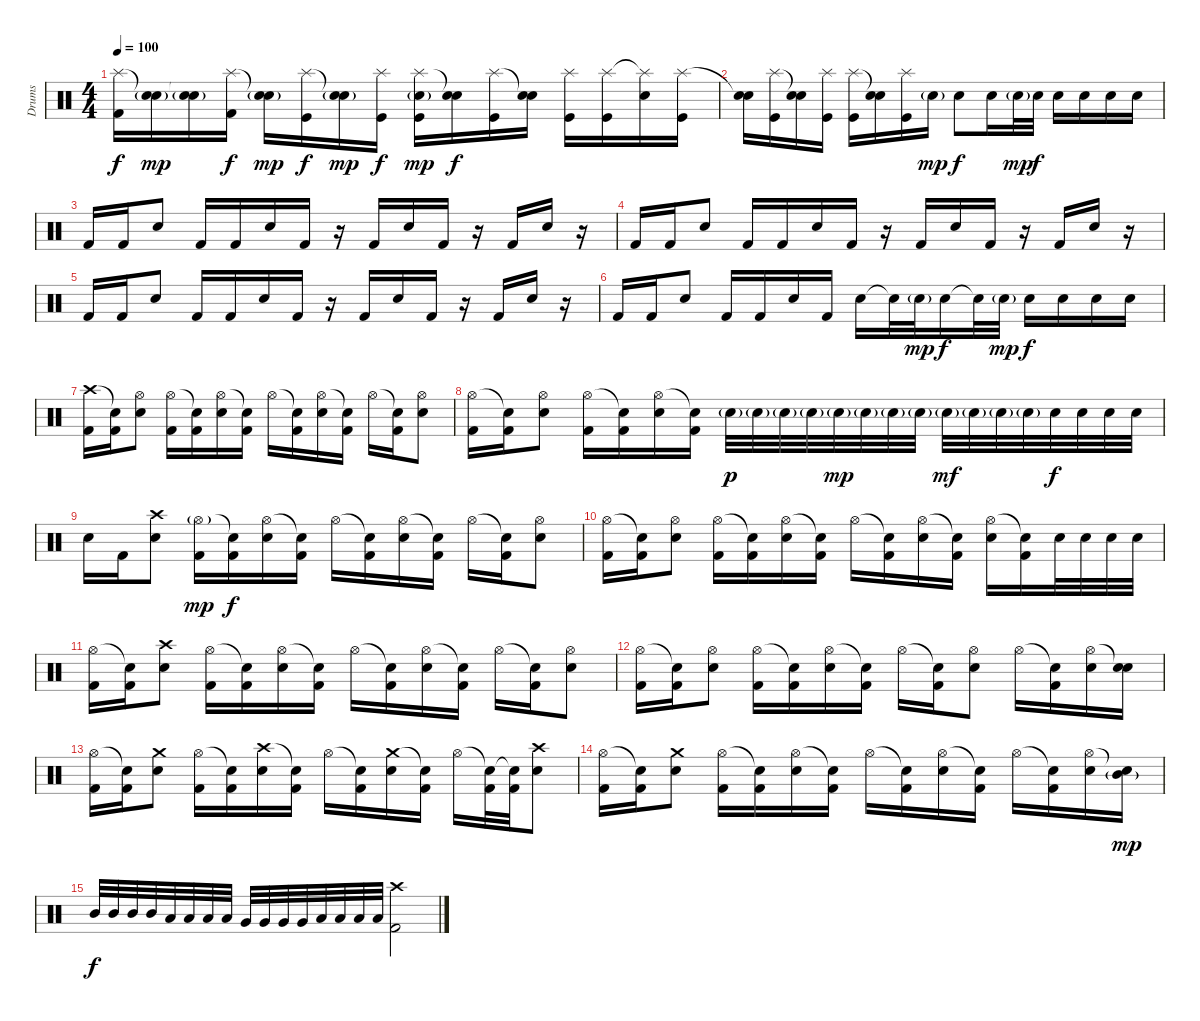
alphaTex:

\track ("Drums" "Drums") {instrument percussion}
\staff {score}
\articulation defaults
\ts (4 4)
\tempo 100
\clef neutral
\ks c
("Splash (hit)" "Kick (hit) 2").16{dy f} ("Snare (hit)"{t} "Electric Snare (hit)"{g}).16{dy mp} ("Snare (hit)"{t} "Electric Snare (hit)"{g}).16 ("Splash (hit)" "Kick (hit) 2").16{dy f} ("Snare (hit)"{t} "Electric Snare (hit)"{g}).16{dy mp} ("Splash (hit)" "Kick (hit)").16{dy f} ("Snare (hit)"{t} "Electric Snare (hit)"{g}).16{dy mp} ("Splash (hit)" "Kick (hit)").16{dy f} ("Splash (hit)" "Electric Snare (hit)"{g} "Kick (hit)").16{dy mp} ("Snare (hit)"{t} "Electric Snare (hit)").16{dy f} ("Splash (hit)" "Kick (hit)").16 ("Snare (hit)"{t} "Electric Snare (hit)").16 ("Splash (hit)" "Kick (hit)").16 ("Splash (hit)" "Kick (hit)").16 ("Splash (hit)"{t} "Electric Snare (hit)").16 ("Splash (hit)" "Kick (hit)").16 |
("Snare (hit)"{t} "Electric Snare (hit)").16 ("Splash (hit)" "Kick (hit)").16 ("Snare (hit)"{t} "Electric Snare (hit)").16 ("Splash (hit)" "Kick (hit)").16 ("Splash (hit)" "Kick (hit)").16 ("Snare (hit)"{t} "Electric Snare (hit)").16 ("Splash (hit)" "Kick (hit)").16 "Electric Snare (hit)"{g}.16{dy mp} "Electric Snare (hit)".8{dy f} "Electric Snare (hit)".16 "Electric Snare (hit)"{g}.32{dy mp} "Electric Snare (hit)".32{dy f} "Electric Snare (hit)".16 "Electric Snare (hit)".16 "Electric Snare (hit)".16 "Electric Snare (hit)".16 |
"Kick (hit) 2".16 "Kick (hit) 2".16 "Electric Snare (hit)".8 "Kick (hit) 2".16 "Kick (hit) 2".16 "Electric Snare (hit)".16 "Kick (hit) 2".16 r.16 "Kick (hit) 2".16 "Electric Snare (hit)".16 "Kick (hit) 2".16 r.16 "Kick (hit) 2".16 "Electric Snare (hit)".16 r.16 |
"Kick (hit) 2".16 "Kick (hit) 2".16 "Electric Snare (hit)".8 "Kick (hit) 2".16 "Kick (hit) 2".16 "Electric Snare (hit)".16 "Kick (hit) 2".16 r.16 "Kick (hit) 2".16 "Electric Snare (hit)".16 "Kick (hit) 2".16 r.16 "Kick (hit) 2".16 "Electric Snare (hit)".16 r.16 |
"Kick (hit) 2".16 "Kick (hit) 2".16 "Electric Snare (hit)".8 "Kick (hit) 2".16 "Kick (hit) 2".16 "Electric Snare (hit)".16 "Kick (hit) 2".16 r.16 "Kick (hit) 2".16 "Electric Snare (hit)".16 "Kick (hit) 2".16 r.16 "Kick (hit) 2".16 "Electric Snare (hit)".16 r.16 |
"Kick (hit) 2".16 "Kick (hit) 2".16 "Electric Snare (hit)".8 "Kick (hit) 2".16 "Kick (hit) 2".16 "Electric Snare (hit)".16 "Kick (hit) 2".16 "Electric Snare (hit)".16 "Snare (hit)"{t}.32 "Electric Snare (hit)"{g}.32{dy mp} "Electric Snare (hit)".16{dy f} "Snare (hit)"{t}.32 "Electric Snare (hit)"{g}.32{dy mp} "Electric Snare (hit)".16{dy f} "Electric Snare (hit)".16 "Electric Snare (hit)".16 "Electric Snare (hit)".16 |
("Crash high (hit)" "Kick (hit) 2").16 ("Snare (hit)"{t} "Kick (hit) 2").16 ("Hi-Hat (open)" "Electric Snare (hit)").8 ("Hi-Hat (open)" "Kick (hit) 2").16 ("Snare (hit)"{t} "Kick (hit) 2").16 ("Hi-Hat (open)" "Electric Snare (hit)").16 ("Snare (hit)"{t} "Kick (hit) 2").16 "Hi-Hat (open)".16 ("Snare (hit)"{t} "Kick (hit) 2").16 ("Hi-Hat (open)" "Electric Snare (hit)").16 ("Snare (hit)"{t} "Kick (hit) 2").16 "Hi-Hat (open)".16 ("Snare (hit)"{t} "Kick (hit) 2").16 ("Hi-Hat (open)" "Electric Snare (hit)").8 |
("Hi-Hat (open)" "Kick (hit) 2").16 ("Snare (hit)"{t} "Kick (hit) 2").16 ("Hi-Hat (open)" "Electric Snare (hit)").8 ("Hi-Hat (open)" "Kick (hit) 2").16 ("Snare (hit)"{t} "Kick (hit) 2").16 ("Hi-Hat (open)" "Electric Snare (hit)").16 ("Snare (hit)"{t} "Kick (hit) 2").16 "Electric Snare (hit)"{g}.32{dy p} "Electric Snare (hit)"{g}.32 "Electric Snare (hit)"{g}.32 "Electric Snare (hit)"{g}.32 "Electric Snare (hit)"{g}.32{dy mp} "Electric Snare (hit)"{g}.32 "Electric Snare (hit)"{g}.32 "Electric Snare (hit)"{g}.32 "Electric Snare (hit)"{g}.32{dy mf} "Electric Snare (hit)"{g}.32 "Electric Snare (hit)"{g}.32 "Electric Snare (hit)"{g}.32 "Electric Snare (hit)".32{dy f} "Electric Snare (hit)".32 "Electric Snare (hit)".32 "Electric Snare (hit)".32 |
"Electric Snare (hit)".16 "Kick (hit) 2".16 ("Crash high (hit)" "Electric Snare (hit)").8 ("Hi-Hat (open)"{g} "Kick (hit) 2").16{dy mp} ("Snare (hit)"{t} "Kick (hit) 2").16{dy f} ("Hi-Hat (open)" "Electric Snare (hit)").16 ("Snare (hit)"{t} "Kick (hit) 2").16 "Hi-Hat (open)".16 ("Snare (hit)"{t} "Kick (hit) 2").16 ("Hi-Hat (open)" "Electric Snare (hit)").16 ("Snare (hit)"{t} "Kick (hit) 2").16 "Hi-Hat (open)".16 ("Snare (hit)"{t} "Kick (hit) 2").16 ("Hi-Hat (open)" "Electric Snare (hit)").8 |
("Hi-Hat (open)" "Kick (hit) 2").16 ("Snare (hit)"{t} "Kick (hit) 2").16 ("Hi-Hat (open)" "Electric Snare (hit)").8 ("Hi-Hat (open)" "Kick (hit) 2").16 ("Snare (hit)"{t} "Kick (hit) 2").16 ("Hi-Hat (open)" "Electric Snare (hit)").16 ("Snare (hit)"{t} "Kick (hit) 2").16 "Hi-Hat (open)".16 ("Snare (hit)"{t} "Kick (hit) 2").16 ("Hi-Hat (open)" "Electric Snare (hit)").16 ("Snare (hit)"{t} "Kick (hit) 2").16 ("Hi-Hat (open)" "Electric Snare (hit)").16 ("Snare (hit)"{t} "Kick (hit) 2").16 "Electric Snare (hit)".32 "Electric Snare (hit)".32 "Electric Snare (hit)".32 "Electric Snare (hit)".32 |
("Hi-Hat (open)" "Kick (hit) 2").16 ("Snare (hit)"{t} "Kick (hit) 2").16 ("Crash high (hit)" "Electric Snare (hit)").8 ("Hi-Hat (open)" "Kick (hit) 2").16 ("Snare (hit)"{t} "Kick (hit) 2").16 ("Hi-Hat (open)" "Electric Snare (hit)").16 ("Snare (hit)"{t} "Kick (hit) 2").16 "Hi-Hat (open)".16 ("Snare (hit)"{t} "Kick (hit) 2").16 ("Hi-Hat (open)" "Electric Snare (hit)").16 ("Snare (hit)"{t} "Kick (hit) 2").16 "Hi-Hat (open)".16 ("Snare (hit)"{t} "Kick (hit) 2").16 ("Hi-Hat (open)" "Electric Snare (hit)").8 |
("Hi-Hat (open)" "Kick (hit) 2").16 ("Snare (hit)"{t} "Kick (hit) 2").16 ("Hi-Hat (open)" "Electric Snare (hit)").8 ("Hi-Hat (open)" "Kick (hit) 2").16 ("Snare (hit)"{t} "Kick (hit) 2").16 ("Hi-Hat (open)" "Electric Snare (hit)").16 ("Snare (hit)"{t} "Kick (hit) 2").16 "Hi-Hat (open)".16 ("Snare (hit)"{t} "Kick (hit) 2").16 ("Hi-Hat (open)" "Electric Snare (hit)").8 "Hi-Hat (open)".16 ("Snare (hit)"{t} "Kick (hit) 2").16 ("Hi-Hat (open)" "Electric Snare (hit)").16 ("Snare (hit)"{t} "Electric Snare (hit)").16 |
("Hi-Hat (open)" "Kick (hit) 2").16 ("Snare (hit)"{t} "Kick (hit) 2").16 ("Crash medium (hit)" "Electric Snare (hit)").8 ("Hi-Hat (open)" "Kick (hit) 2").16 ("Snare (hit)"{t} "Kick (hit) 2").16 ("Crash high (hit)" "Electric Snare (hit)").16 ("Snare (hit)"{t} "Kick (hit) 2").16 "Hi-Hat (open)".16 ("Snare (hit)"{t} "Kick (hit) 2").16 ("Crash medium (hit)" "Electric Snare (hit)").16 ("Snare (hit)"{t} "Kick (hit) 2").16 "Hi-Hat (open)".16 ("Snare (hit)"{t} "Kick (hit) 2").32 ("Snare (hit)"{t} "Kick (hit) 2").32 ("Crash high (hit)" "Electric Snare (hit)").8 |
("Hi-Hat (open)" "Kick (hit) 2").16 ("Snare (hit)"{t} "Kick (hit) 2").16 ("Crash medium (hit)" "Electric Snare (hit)").8 ("Hi-Hat (open)" "Kick (hit) 2").16 ("Snare (hit)"{t} "Kick (hit) 2").16 ("Hi-Hat (open)" "Electric Snare (hit)").16 ("Snare (hit)"{t} "Kick (hit) 2").16 "Hi-Hat (open)".16 ("Snare (hit)"{t} "Kick (hit) 2").16 ("Hi-Hat (open)" "Electric Snare (hit)").16 ("Snare (hit)"{t} "Kick (hit) 2").16 "Hi-Hat (open)".16 ("Snare (hit)"{t} "Kick (hit) 2").16 ("Hi-Hat (open)" "Electric Snare (hit)").16 ("Snare (hit)"{t} "Mid Tom (hit)"{g}).16{dy mp} |
"Mid Tom (hit)".32{dy f} "Mid Tom (hit)".32 "Mid Tom (hit)".32 "Mid Tom (hit)".32 "Low Tom (hit)".32 "Low Tom (hit)".32 "Low Tom (hit)".32 "Low Tom (hit)".32 "Very Low Tom (hit)".32 "Very Low Tom (hit)".32 "Very Low Tom (hit)".32 "Very Low Tom (hit)".32 "Low Floor Tom (hit)".32 "Low Floor Tom (hit)".32 "Low Floor Tom (hit)".32 "Low Floor Tom (hit)".32 ("Crash high (hit)" "Kick (hit) 2").2
